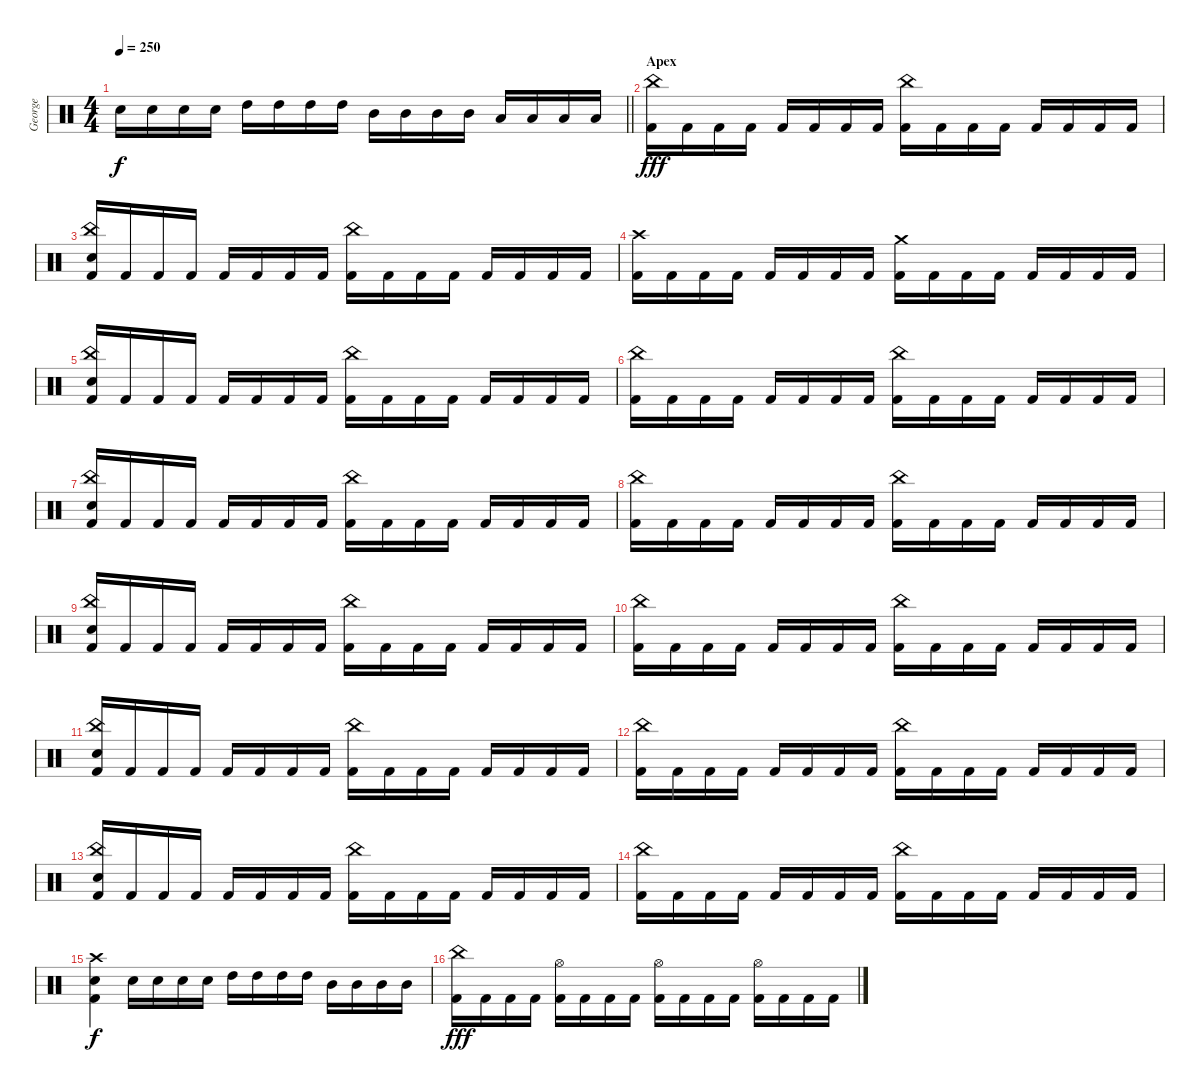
\track ("George" "George") {instrument percussion}
\staff {score}
\articulation defaults
\ts (4 4)
\tempo 250
\clef neutral
\barLineRight lightlight
\ks c "Snare (hit) 2".16{dy f} "Snare (hit) 2".16 "Snare (hit) 2".16 "Snare (hit) 2".16 "High Tom (hit)".16 "High Tom (hit)".16 "High Tom (hit)".16 "High Tom (hit)".16 "Mid Tom (hit)".16 "Mid Tom (hit)".16 "Mid Tom (hit)".16 "Mid Tom (hit)".16 "Low Tom (hit)".16 "Low Tom (hit)".16 "Low Tom (hit)".16 "Low Tom (hit)".16
|
\section ("" "Apex")
("China (hit)" "Kick (hit) 2").16{dy fff} "Kick (hit) 2".16 "Kick (hit) 2".16 "Kick (hit) 2".16 "Kick (hit) 2".16 "Kick (hit) 2".16 "Kick (hit) 2".16 "Kick (hit) 2".16 ("China (hit)" "Kick (hit) 2").16 "Kick (hit) 2".16 "Kick (hit) 2".16 "Kick (hit) 2".16 "Kick (hit) 2".16 "Kick (hit) 2".16 "Kick (hit) 2".16 "Kick (hit) 2".16 |
("China (hit)" "Snare (hit) 2" "Kick (hit) 2").16 "Kick (hit) 2".16 "Kick (hit) 2".16 "Kick (hit) 2".16 "Kick (hit) 2".16 "Kick (hit) 2".16 "Kick (hit) 2".16 "Kick (hit) 2".16 ("China (hit)" "Kick (hit) 2").16 "Kick (hit) 2".16 "Kick (hit) 2".16 "Kick (hit) 2".16 "Kick (hit) 2".16 "Kick (hit) 2".16 "Kick (hit) 2".16 "Kick (hit) 2".16 |
("Crash high (hit)" "Kick (hit) 2").16 "Kick (hit) 2".16 "Kick (hit) 2".16 "Kick (hit) 2".16 "Kick (hit) 2".16 "Kick (hit) 2".16 "Kick (hit) 2".16 "Kick (hit) 2".16 ("Crash medium (hit)" "Kick (hit) 2").16 "Kick (hit) 2".16 "Kick (hit) 2".16 "Kick (hit) 2".16 "Kick (hit) 2".16 "Kick (hit) 2".16 "Kick (hit) 2".16 "Kick (hit) 2".16 |
("China (hit)" "Snare (hit) 2" "Kick (hit) 2").16 "Kick (hit) 2".16 "Kick (hit) 2".16 "Kick (hit) 2".16 "Kick (hit) 2".16 "Kick (hit) 2".16 "Kick (hit) 2".16 "Kick (hit) 2".16 ("China (hit)" "Kick (hit) 2").16 "Kick (hit) 2".16 "Kick (hit) 2".16 "Kick (hit) 2".16 "Kick (hit) 2".16 "Kick (hit) 2".16 "Kick (hit) 2".16 "Kick (hit) 2".16 |
("China (hit)" "Kick (hit) 2").16 "Kick (hit) 2".16 "Kick (hit) 2".16 "Kick (hit) 2".16 "Kick (hit) 2".16 "Kick (hit) 2".16 "Kick (hit) 2".16 "Kick (hit) 2".16 ("China (hit)" "Kick (hit) 2").16 "Kick (hit) 2".16 "Kick (hit) 2".16 "Kick (hit) 2".16 "Kick (hit) 2".16 "Kick (hit) 2".16 "Kick (hit) 2".16 "Kick (hit) 2".16 |
("China (hit)" "Snare (hit) 2" "Kick (hit) 2").16 "Kick (hit) 2".16 "Kick (hit) 2".16 "Kick (hit) 2".16 "Kick (hit) 2".16 "Kick (hit) 2".16 "Kick (hit) 2".16 "Kick (hit) 2".16 ("China (hit)" "Kick (hit) 2").16 "Kick (hit) 2".16 "Kick (hit) 2".16 "Kick (hit) 2".16 "Kick (hit) 2".16 "Kick (hit) 2".16 "Kick (hit) 2".16 "Kick (hit) 2".16 |
("China (hit)" "Kick (hit) 2").16 "Kick (hit) 2".16 "Kick (hit) 2".16 "Kick (hit) 2".16 "Kick (hit) 2".16 "Kick (hit) 2".16 "Kick (hit) 2".16 "Kick (hit) 2".16 ("China (hit)" "Kick (hit) 2").16 "Kick (hit) 2".16 "Kick (hit) 2".16 "Kick (hit) 2".16 "Kick (hit) 2".16 "Kick (hit) 2".16 "Kick (hit) 2".16 "Kick (hit) 2".16 |
("China (hit)" "Snare (hit) 2" "Kick (hit) 2").16 "Kick (hit) 2".16 "Kick (hit) 2".16 "Kick (hit) 2".16 "Kick (hit) 2".16 "Kick (hit) 2".16 "Kick (hit) 2".16 "Kick (hit) 2".16 ("China (hit)" "Kick (hit) 2").16 "Kick (hit) 2".16 "Kick (hit) 2".16 "Kick (hit) 2".16 "Kick (hit) 2".16 "Kick (hit) 2".16 "Kick (hit) 2".16 "Kick (hit) 2".16 |
("China (hit)" "Kick (hit) 2").16 "Kick (hit) 2".16 "Kick (hit) 2".16 "Kick (hit) 2".16 "Kick (hit) 2".16 "Kick (hit) 2".16 "Kick (hit) 2".16 "Kick (hit) 2".16 ("China (hit)" "Kick (hit) 2").16 "Kick (hit) 2".16 "Kick (hit) 2".16 "Kick (hit) 2".16 "Kick (hit) 2".16 "Kick (hit) 2".16 "Kick (hit) 2".16 "Kick (hit) 2".16 |
("China (hit)" "Snare (hit) 2" "Kick (hit) 2").16 "Kick (hit) 2".16 "Kick (hit) 2".16 "Kick (hit) 2".16 "Kick (hit) 2".16 "Kick (hit) 2".16 "Kick (hit) 2".16 "Kick (hit) 2".16 ("China (hit)" "Kick (hit) 2").16 "Kick (hit) 2".16 "Kick (hit) 2".16 "Kick (hit) 2".16 "Kick (hit) 2".16 "Kick (hit) 2".16 "Kick (hit) 2".16 "Kick (hit) 2".16 |
("China (hit)" "Kick (hit) 2").16 "Kick (hit) 2".16 "Kick (hit) 2".16 "Kick (hit) 2".16 "Kick (hit) 2".16 "Kick (hit) 2".16 "Kick (hit) 2".16 "Kick (hit) 2".16 ("China (hit)" "Kick (hit) 2").16 "Kick (hit) 2".16 "Kick (hit) 2".16 "Kick (hit) 2".16 "Kick (hit) 2".16 "Kick (hit) 2".16 "Kick (hit) 2".16 "Kick (hit) 2".16 |
("China (hit)" "Snare (hit) 2" "Kick (hit) 2").16 "Kick (hit) 2".16 "Kick (hit) 2".16 "Kick (hit) 2".16 "Kick (hit) 2".16 "Kick (hit) 2".16 "Kick (hit) 2".16 "Kick (hit) 2".16 ("China (hit)" "Kick (hit) 2").16 "Kick (hit) 2".16 "Kick (hit) 2".16 "Kick (hit) 2".16 "Kick (hit) 2".16 "Kick (hit) 2".16 "Kick (hit) 2".16 "Kick (hit) 2".16 |
("China (hit)" "Kick (hit) 2").16 "Kick (hit) 2".16 "Kick (hit) 2".16 "Kick (hit) 2".16 "Kick (hit) 2".16 "Kick (hit) 2".16 "Kick (hit) 2".16 "Kick (hit) 2".16 ("China (hit)" "Kick (hit) 2").16 "Kick (hit) 2".16 "Kick (hit) 2".16 "Kick (hit) 2".16 "Kick (hit) 2".16 "Kick (hit) 2".16 "Kick (hit) 2".16 "Kick (hit) 2".16 |
("Crash high (hit)" "Snare (hit) 2" "Kick (hit) 2").4{dy f} "Snare (hit) 2".16 "Snare (hit) 2".16 "Snare (hit) 2".16 "Snare (hit) 2".16 "High Tom (hit)".16 "High Tom (hit)".16 "High Tom (hit)".16 "High Tom (hit)".16 "Mid Tom (hit)".16 "Mid Tom (hit)".16 "Mid Tom (hit)".16 "Mid Tom (hit)".16 |
("China (hit)" "Kick (hit) 2").16{dy fff} "Kick (hit) 2".16 "Kick (hit) 2".16 "Kick (hit) 2".16 ("Hi-Hat (open)" "Kick (hit) 2").16 "Kick (hit) 2".16 "Kick (hit) 2".16 "Kick (hit) 2".16 ("Hi-Hat (open)" "Kick (hit) 2").16 "Kick (hit) 2".16 "Kick (hit) 2".16 "Kick (hit) 2".16 ("Hi-Hat (open)" "Kick (hit) 2").16 "Kick (hit) 2".16 "Kick (hit) 2".16 "Kick (hit) 2".16
